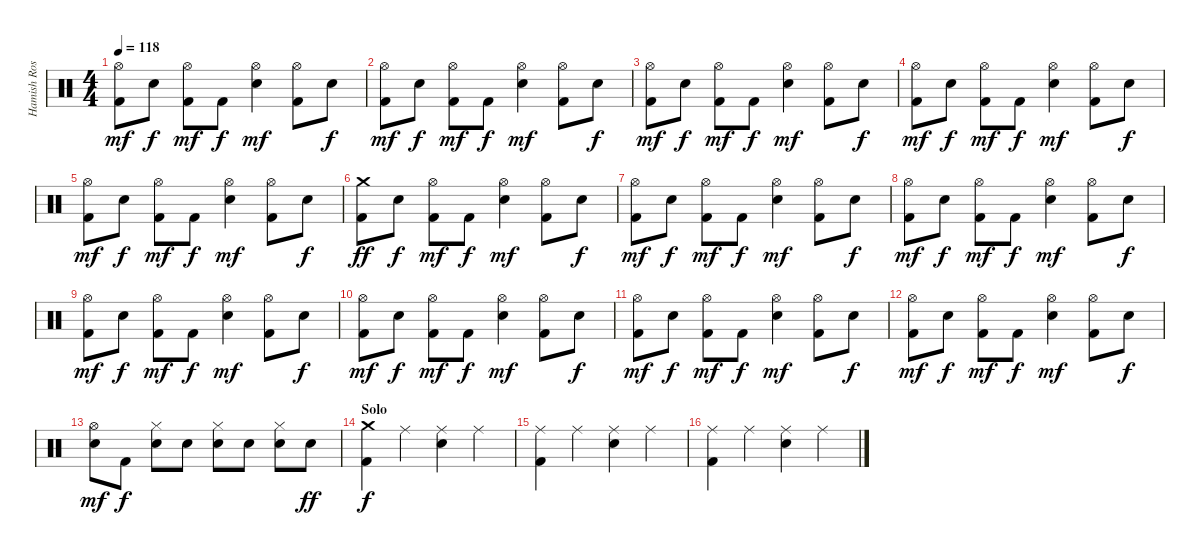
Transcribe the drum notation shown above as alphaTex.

\track ("Hamish Rosser" "Hamish Ros") {instrument percussion}
\staff {score}
\articulation defaults
\ts (4 4)
\tempo 118
\clef neutral
\ks c
("Hi-Hat (open)" "Kick (hit) 2").8{dy mf} "Electric Snare (hit)".8{dy f} ("Hi-Hat (open)" "Kick (hit) 2").8{dy mf} "Kick (hit) 2".8{dy f} ("Hi-Hat (open)" "Electric Snare (hit)").4{dy mf} ("Hi-Hat (open)" "Kick (hit) 2").8 "Electric Snare (hit)".8{dy f} |
("Hi-Hat (open)" "Kick (hit) 2").8{dy mf} "Electric Snare (hit)".8{dy f} ("Hi-Hat (open)" "Kick (hit) 2").8{dy mf} "Kick (hit) 2".8{dy f} ("Hi-Hat (open)" "Electric Snare (hit)").4{dy mf} ("Hi-Hat (open)" "Kick (hit) 2").8 "Electric Snare (hit)".8{dy f} |
("Hi-Hat (open)" "Kick (hit) 2").8{dy mf} "Electric Snare (hit)".8{dy f} ("Hi-Hat (open)" "Kick (hit) 2").8{dy mf} "Kick (hit) 2".8{dy f} ("Hi-Hat (open)" "Electric Snare (hit)").4{dy mf} ("Hi-Hat (open)" "Kick (hit) 2").8 "Electric Snare (hit)".8{dy f} |
("Hi-Hat (open)" "Kick (hit) 2").8{dy mf} "Electric Snare (hit)".8{dy f} ("Hi-Hat (open)" "Kick (hit) 2").8{dy mf} "Kick (hit) 2".8{dy f} ("Hi-Hat (open)" "Electric Snare (hit)").4{dy mf} ("Hi-Hat (open)" "Kick (hit) 2").8 "Electric Snare (hit)".8{dy f} |
("Hi-Hat (open)" "Kick (hit) 2").8{dy mf} "Electric Snare (hit)".8{dy f} ("Hi-Hat (open)" "Kick (hit) 2").8{dy mf} "Kick (hit) 2".8{dy f} ("Hi-Hat (open)" "Electric Snare (hit)").4{dy mf} ("Hi-Hat (open)" "Kick (hit) 2").8 "Electric Snare (hit)".8{dy f} |
("Crash medium (hit)" "Kick (hit) 2").8{dy ff} "Electric Snare (hit)".8{dy f} ("Hi-Hat (open)" "Kick (hit) 2").8{dy mf} "Kick (hit) 2".8{dy f} ("Hi-Hat (open)" "Electric Snare (hit)").4{dy mf} ("Hi-Hat (open)" "Kick (hit) 2").8 "Electric Snare (hit)".8{dy f} |
("Hi-Hat (open)" "Kick (hit) 2").8{dy mf} "Electric Snare (hit)".8{dy f} ("Hi-Hat (open)" "Kick (hit) 2").8{dy mf} "Kick (hit) 2".8{dy f} ("Hi-Hat (open)" "Electric Snare (hit)").4{dy mf} ("Hi-Hat (open)" "Kick (hit) 2").8 "Electric Snare (hit)".8{dy f} |
("Hi-Hat (open)" "Kick (hit) 2").8{dy mf} "Electric Snare (hit)".8{dy f} ("Hi-Hat (open)" "Kick (hit) 2").8{dy mf} "Kick (hit) 2".8{dy f} ("Hi-Hat (open)" "Electric Snare (hit)").4{dy mf} ("Hi-Hat (open)" "Kick (hit) 2").8 "Electric Snare (hit)".8{dy f} |
("Hi-Hat (open)" "Kick (hit) 2").8{dy mf} "Electric Snare (hit)".8{dy f} ("Hi-Hat (open)" "Kick (hit) 2").8{dy mf} "Kick (hit) 2".8{dy f} ("Hi-Hat (open)" "Electric Snare (hit)").4{dy mf} ("Hi-Hat (open)" "Kick (hit) 2").8 "Electric Snare (hit)".8{dy f} |
("Hi-Hat (open)" "Kick (hit) 2").8{dy mf} "Electric Snare (hit)".8{dy f} ("Hi-Hat (open)" "Kick (hit) 2").8{dy mf} "Kick (hit) 2".8{dy f} ("Hi-Hat (open)" "Electric Snare (hit)").4{dy mf} ("Hi-Hat (open)" "Kick (hit) 2").8 "Electric Snare (hit)".8{dy f} |
("Hi-Hat (open)" "Kick (hit) 2").8{dy mf} "Electric Snare (hit)".8{dy f} ("Hi-Hat (open)" "Kick (hit) 2").8{dy mf} "Kick (hit) 2".8{dy f} ("Hi-Hat (open)" "Electric Snare (hit)").4{dy mf} ("Hi-Hat (open)" "Kick (hit) 2").8 "Electric Snare (hit)".8{dy f} |
("Hi-Hat (open)" "Kick (hit) 2").8{dy mf} "Electric Snare (hit)".8{dy f} ("Hi-Hat (open)" "Kick (hit) 2").8{dy mf} "Kick (hit) 2".8{dy f} ("Hi-Hat (open)" "Electric Snare (hit)").4{dy mf} ("Hi-Hat (open)" "Kick (hit) 2").8 "Electric Snare (hit)".8{dy f} |
("Hi-Hat (open)" "Electric Snare (hit)").8{dy mf} "Kick (hit) 2".8{dy f} ("Hi-Hat (closed)" "Electric Snare (hit)").8 "Electric Snare (hit)".8 ("Hi-Hat (closed)" "Electric Snare (hit)").8 "Electric Snare (hit)".8 ("Hi-Hat (closed)" "Electric Snare (hit)").8 "Electric Snare (hit)".8{dy ff} |
\section ("" "Solo")
("Crash medium (hit)" "Kick (hit) 2").4{dy f} "Ride (middle)".4 ("Ride (middle)" "Electric Snare (hit)").4 "Ride (middle)".4 |
("Ride (middle)" "Kick (hit) 2").4 "Ride (middle)".4 ("Ride (middle)" "Electric Snare (hit)").4 "Ride (middle)".4 |
("Ride (middle)" "Kick (hit) 2").4 "Ride (middle)".4 ("Ride (middle)" "Electric Snare (hit)").4 "Ride (middle)".4
